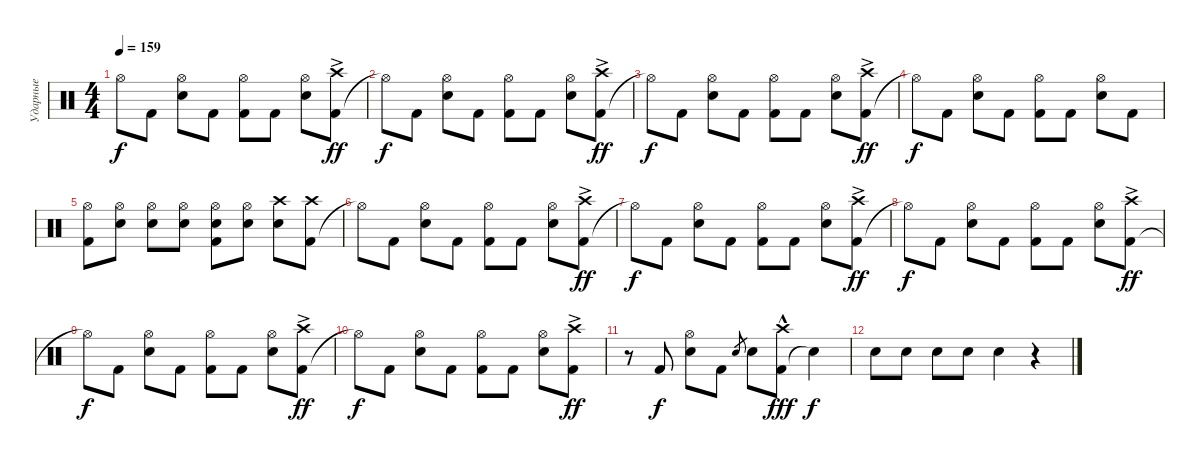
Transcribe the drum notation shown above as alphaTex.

\track ("Ударные" "Ударные") {instrument percussion}
\staff {score}
\articulation defaults
\ts (4 4)
\tempo 159
\clef neutral
\ks c "Hi-Hat (open)"{t}.8{dy f} "Kick (hit) 2".8
("Snare (hit) 2" "Hi-Hat (open)").8 "Kick (hit) 2".8 ("Kick (hit) 2" "Hi-Hat (open)").8 "Kick (hit) 2".8 ("Snare (hit) 2" "Hi-Hat (open)").8 ("Kick (hit) 2" "Crash high (hit)"{ac}).8{dy ff} |
"Hi-Hat (open)"{t}.8{dy f} "Kick (hit) 2".8 ("Snare (hit) 2" "Hi-Hat (open)").8 "Kick (hit) 2".8 ("Kick (hit) 2" "Hi-Hat (open)").8 "Kick (hit) 2".8 ("Snare (hit) 2" "Hi-Hat (open)").8 ("Kick (hit) 2" "Crash high (hit)"{ac}).8{dy ff} |
"Hi-Hat (open)"{t}.8{dy f} "Kick (hit) 2".8 ("Snare (hit) 2" "Hi-Hat (open)").8 "Kick (hit) 2".8 ("Kick (hit) 2" "Hi-Hat (open)").8 "Kick (hit) 2".8 ("Snare (hit) 2" "Hi-Hat (open)").8 ("Kick (hit) 2" "Crash high (hit)"{ac}).8{dy ff} |
"Hi-Hat (open)"{t}.8{dy f} "Kick (hit) 2".8 ("Snare (hit) 2" "Hi-Hat (open)").8 "Kick (hit) 2".8 ("Kick (hit) 2" "Hi-Hat (open)").8 "Kick (hit) 2".8 ("Snare (hit) 2" "Hi-Hat (open)").8 "Kick (hit) 2".8 |
("Kick (hit) 2" "Hi-Hat (open)").8 ("Snare (hit) 2" "Hi-Hat (open)").8 ("Snare (hit) 2" "Hi-Hat (open)").8 ("Snare (hit) 2" "Hi-Hat (open)").8 ("Kick (hit) 2" "Snare (hit) 2" "Hi-Hat (open)").8 ("Snare (hit) 2" "Hi-Hat (open)").8 ("Snare (hit) 2" "Crash high (hit)").8 ("Kick (hit) 2" "Crash high (hit)").8 |
"Hi-Hat (open)"{t}.8 "Kick (hit) 2".8 ("Snare (hit) 2" "Hi-Hat (open)").8 "Kick (hit) 2".8 ("Kick (hit) 2" "Hi-Hat (open)").8 "Kick (hit) 2".8 ("Snare (hit) 2" "Hi-Hat (open)").8 ("Kick (hit) 2" "Crash high (hit)"{ac}).8{dy ff} |
"Hi-Hat (open)"{t}.8{dy f} "Kick (hit) 2".8 ("Snare (hit) 2" "Hi-Hat (open)").8 "Kick (hit) 2".8 ("Kick (hit) 2" "Hi-Hat (open)").8 "Kick (hit) 2".8 ("Snare (hit) 2" "Hi-Hat (open)").8 ("Kick (hit) 2" "Crash high (hit)"{ac}).8{dy ff} |
"Hi-Hat (open)"{t}.8{dy f} "Kick (hit) 2".8 ("Snare (hit) 2" "Hi-Hat (open)").8 "Kick (hit) 2".8 ("Kick (hit) 2" "Hi-Hat (open)").8 "Kick (hit) 2".8 ("Snare (hit) 2" "Hi-Hat (open)").8 ("Kick (hit) 2" "Crash high (hit)"{ac}).8{dy ff} |
"Hi-Hat (open)"{t}.8{dy f} "Kick (hit) 2".8 ("Snare (hit) 2" "Hi-Hat (open)").8 "Kick (hit) 2".8 ("Kick (hit) 2" "Hi-Hat (open)").8 "Kick (hit) 2".8 ("Snare (hit) 2" "Hi-Hat (open)").8 ("Kick (hit) 2" "Crash high (hit)"{ac}).8{dy ff} |
"Hi-Hat (open)"{t}.8{dy f} "Kick (hit) 2".8 ("Snare (hit) 2" "Hi-Hat (open)").8 "Kick (hit) 2".8 ("Kick (hit) 2" "Hi-Hat (open)").8 "Kick (hit) 2".8 ("Snare (hit) 2" "Hi-Hat (open)").8 ("Kick (hit) 2" "Crash high (hit)"{ac}).8{dy ff} |
r.8 "Kick (hit) 2".8{dy f} ("Snare (hit) 2" "Hi-Hat (open)").8 "Kick (hit) 2".8 "Snare (hit) 2".8{gr} "Snare (hit) 2".8 ("Kick (hit) 2" "Crash high (hit)"{hac}).8{dy fff} "Snare (hit)"{t}.4{dy f} |
"Snare (hit) 2".8 "Snare (hit) 2".8 "Snare (hit) 2".8 "Snare (hit) 2".8 "Snare (hit) 2".4 r.4
